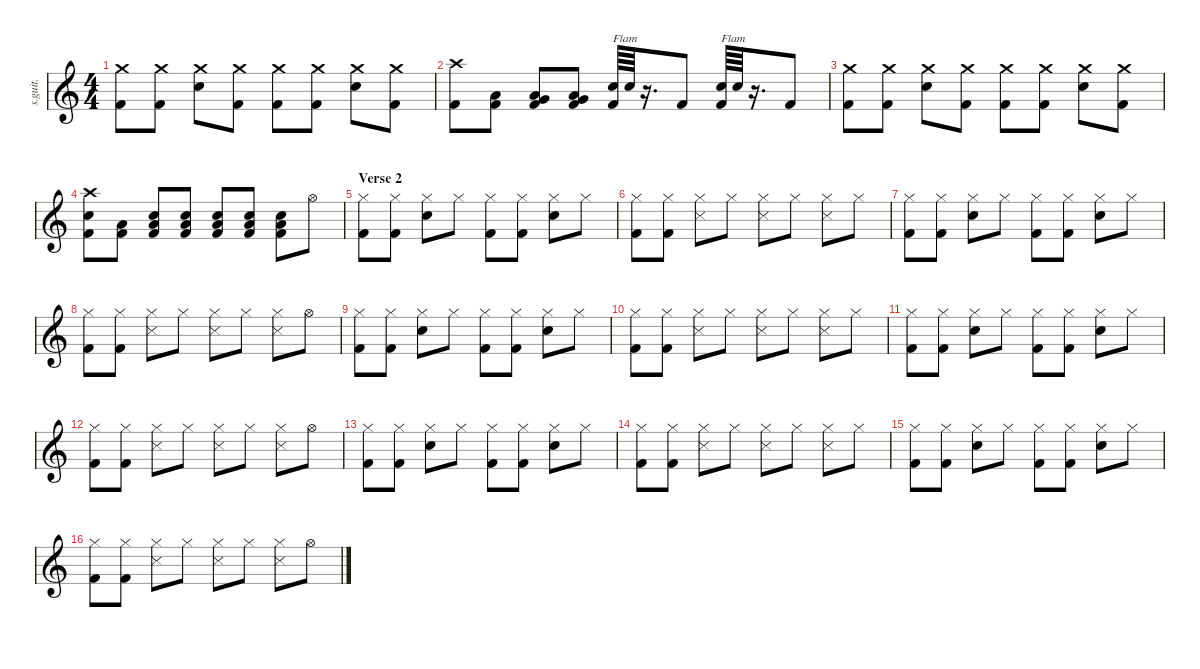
\defaultSystemsLayout 4
\hideDynamics
\bracketExtendMode nobrackets
\track ("Dave Grohl - Drums" "s.guit.") {instrument percussion}
\staff {score}
\articulation defaults
\ts (4 4)
\tempo (100 hide)
\clef g2
\ks c
("Crash medium (hit)" "Kick (hit) 2").8{lyrics (0 "") lyrics (1 "") lyrics (2 "") lyrics (3 "") lyrics (4 "") dy ff} ("Crash medium (hit)" "Kick (hit) 2").8{lyrics (0 "") lyrics (1 "") lyrics (2 "") lyrics (3 "") lyrics (4 "")} ("Snare (hit) 2" "Crash medium (hit)").8{lyrics (0 "") lyrics (1 "") lyrics (2 "") lyrics (3 "") lyrics (4 "")} ("Crash medium (hit)" "Kick (hit) 2").8{lyrics (0 "") lyrics (1 "") lyrics (2 "") lyrics (3 "") lyrics (4 "")} ("Crash medium (hit)" "Kick (hit) 2").8{lyrics (0 "") lyrics (1 "") lyrics (2 "") lyrics (3 "") lyrics (4 "")} ("Crash medium (hit)" "Kick (hit) 2").8{lyrics (0 "") lyrics (1 "") lyrics (2 "") lyrics (3 "") lyrics (4 "")} ("Snare (hit) 2" "Crash medium (hit)").8{lyrics (0 "") lyrics (1 "") lyrics (2 "") lyrics (3 "") lyrics (4 "")} ("Crash medium (hit)" "Kick (hit) 2").8{lyrics (0 "") lyrics (1 "") lyrics (2 "") lyrics (3 "") lyrics (4 "")} |
("Kick (hit) 2" "Crash high (hit)").8{lyrics (0 "") lyrics (1 "") lyrics (2 "") lyrics (3 "") lyrics (4 "")} ("Low Tom (hit)" "Kick (hit) 2").8{lyrics (0 "") lyrics (1 "") lyrics (2 "") lyrics (3 "") lyrics (4 "")} ("Low Tom (hit)" "Kick (hit) 2" "Very Low Tom (hit)").8{lyrics (0 "") lyrics (1 "") lyrics (2 "") lyrics (3 "") lyrics (4 "") dy fff} ("Low Tom (hit)" "Kick (hit) 2" "Very Low Tom (hit)").8{lyrics (0 "") lyrics (1 "") lyrics (2 "") lyrics (3 "") lyrics (4 "")} ("Snare (hit) 2" "Kick (hit) 2").64{txt "Flam" lyrics (0 "") lyrics (1 "") lyrics (2 "") lyrics (3 "") lyrics (4 "") dy ff} "Snare (hit) 2".64{lyrics (0 "") lyrics (1 "") lyrics (2 "") lyrics (3 "") lyrics (4 "")} r.16{d} "Kick (hit) 2".8{lyrics (0 "") lyrics (1 "") lyrics (2 "") lyrics (3 "") lyrics (4 "")} ("Snare (hit) 2" "Kick (hit) 2").64{txt "Flam" lyrics (0 "") lyrics (1 "") lyrics (2 "") lyrics (3 "") lyrics (4 "")} "Snare (hit) 2".64{lyrics (0 "") lyrics (1 "") lyrics (2 "") lyrics (3 "") lyrics (4 "")} r.16{d} "Kick (hit) 2".8{lyrics (0 "") lyrics (1 "") lyrics (2 "") lyrics (3 "") lyrics (4 "")} |
("Crash medium (hit)" "Kick (hit) 2").8{lyrics (0 "") lyrics (1 "") lyrics (2 "") lyrics (3 "") lyrics (4 "")} ("Crash medium (hit)" "Kick (hit) 2").8{lyrics (0 "") lyrics (1 "") lyrics (2 "") lyrics (3 "") lyrics (4 "")} ("Snare (hit) 2" "Crash medium (hit)").8{lyrics (0 "") lyrics (1 "") lyrics (2 "") lyrics (3 "") lyrics (4 "")} ("Crash medium (hit)" "Kick (hit) 2").8{lyrics (0 "") lyrics (1 "") lyrics (2 "") lyrics (3 "") lyrics (4 "")} ("Crash medium (hit)" "Kick (hit) 2").8{lyrics (0 "") lyrics (1 "") lyrics (2 "") lyrics (3 "") lyrics (4 "")} ("Crash medium (hit)" "Kick (hit) 2").8{lyrics (0 "") lyrics (1 "") lyrics (2 "") lyrics (3 "") lyrics (4 "")} ("Snare (hit) 2" "Crash medium (hit)").8{lyrics (0 "") lyrics (1 "") lyrics (2 "") lyrics (3 "") lyrics (4 "")} ("Crash medium (hit)" "Kick (hit) 2").8{lyrics (0 "") lyrics (1 "") lyrics (2 "") lyrics (3 "") lyrics (4 "")} |
("Snare (hit) 2" "Kick (hit) 2" "Crash high (hit)").8{lyrics (0 "") lyrics (1 "") lyrics (2 "") lyrics (3 "") lyrics (4 "")} ("Low Tom (hit)" "Kick (hit) 2").8{lyrics (0 "") lyrics (1 "") lyrics (2 "") lyrics (3 "") lyrics (4 "") dy p} ("Low Tom (hit)" "Kick (hit) 2" "Snare (hit) 2").8{lyrics (0 "") lyrics (1 "") lyrics (2 "") lyrics (3 "") lyrics (4 "") dy mp} ("Low Tom (hit)" "Kick (hit) 2" "Snare (hit) 2").8{lyrics (0 "") lyrics (1 "") lyrics (2 "") lyrics (3 "") lyrics (4 "") dy mf} ("Low Tom (hit)" "Kick (hit) 2" "Snare (hit) 2").8{lyrics (0 "") lyrics (1 "") lyrics (2 "") lyrics (3 "") lyrics (4 "") dy f} ("Low Tom (hit)" "Kick (hit) 2" "Snare (hit) 2").8{lyrics (0 "") lyrics (1 "") lyrics (2 "") lyrics (3 "") lyrics (4 "") dy ff} ("Low Tom (hit)" "Kick (hit) 2" "Snare (hit) 2").8{lyrics (0 "") lyrics (1 "") lyrics (2 "") lyrics (3 "") lyrics (4 "") dy fff} "Hi-Hat (open)".8{lyrics (0 "") lyrics (1 "") lyrics (2 "") lyrics (3 "") lyrics (4 "") dy ff} |
\section ("" "Verse 2")
("Hi-Hat (closed)" "Kick (hit) 2").8{lyrics (0 "") lyrics (1 "") lyrics (2 "") lyrics (3 "") lyrics (4 "") dy mf} ("Hi-Hat (closed)" "Kick (hit) 2").8{lyrics (0 "") lyrics (1 "") lyrics (2 "") lyrics (3 "") lyrics (4 "")} ("Hi-Hat (closed)" "Snare (hit) 2").8{lyrics (0 "") lyrics (1 "") lyrics (2 "") lyrics (3 "") lyrics (4 "")} "Hi-Hat (closed)".8{lyrics (0 "") lyrics (1 "") lyrics (2 "") lyrics (3 "") lyrics (4 "")} ("Hi-Hat (closed)" "Kick (hit) 2").8{lyrics (0 "") lyrics (1 "") lyrics (2 "") lyrics (3 "") lyrics (4 "")} ("Hi-Hat (closed)" "Kick (hit) 2").8{lyrics (0 "") lyrics (1 "") lyrics (2 "") lyrics (3 "") lyrics (4 "")} ("Snare (hit) 2" "Hi-Hat (closed)").8{lyrics (0 "") lyrics (1 "") lyrics (2 "") lyrics (3 "") lyrics (4 "")} "Hi-Hat (closed)".8{lyrics (0 "") lyrics (1 "") lyrics (2 "") lyrics (3 "") lyrics (4 "")} |
("Hi-Hat (closed)" "Kick (hit) 2").8{lyrics (0 "") lyrics (1 "") lyrics (2 "") lyrics (3 "") lyrics (4 "")} ("Hi-Hat (closed)" "Kick (hit) 2").8{lyrics (0 "") lyrics (1 "") lyrics (2 "") lyrics (3 "") lyrics (4 "")} ("Hi-Hat (closed)" "Snare (side stick) 3").8{lyrics (0 "") lyrics (1 "") lyrics (2 "") lyrics (3 "") lyrics (4 "")} "Hi-Hat (closed)".8{lyrics (0 "") lyrics (1 "") lyrics (2 "") lyrics (3 "") lyrics (4 "")} ("Hi-Hat (closed)" "Snare (side stick) 3").8{lyrics (0 "") lyrics (1 "") lyrics (2 "") lyrics (3 "") lyrics (4 "")} "Hi-Hat (closed)".8{lyrics (0 "") lyrics (1 "") lyrics (2 "") lyrics (3 "") lyrics (4 "")} ("Hi-Hat (closed)" "Snare (side stick) 3").8{lyrics (0 "") lyrics (1 "") lyrics (2 "") lyrics (3 "") lyrics (4 "")} "Hi-Hat (closed)".8{lyrics (0 "") lyrics (1 "") lyrics (2 "") lyrics (3 "") lyrics (4 "")} |
("Hi-Hat (closed)" "Kick (hit) 2").8{lyrics (0 "") lyrics (1 "") lyrics (2 "") lyrics (3 "") lyrics (4 "")} ("Hi-Hat (closed)" "Kick (hit) 2").8{lyrics (0 "") lyrics (1 "") lyrics (2 "") lyrics (3 "") lyrics (4 "")} ("Hi-Hat (closed)" "Snare (hit) 2").8{lyrics (0 "") lyrics (1 "") lyrics (2 "") lyrics (3 "") lyrics (4 "")} "Hi-Hat (closed)".8{lyrics (0 "") lyrics (1 "") lyrics (2 "") lyrics (3 "") lyrics (4 "")} ("Hi-Hat (closed)" "Kick (hit) 2").8{lyrics (0 "") lyrics (1 "") lyrics (2 "") lyrics (3 "") lyrics (4 "")} ("Hi-Hat (closed)" "Kick (hit) 2").8{lyrics (0 "") lyrics (1 "") lyrics (2 "") lyrics (3 "") lyrics (4 "")} ("Snare (hit) 2" "Hi-Hat (closed)").8{lyrics (0 "") lyrics (1 "") lyrics (2 "") lyrics (3 "") lyrics (4 "")} "Hi-Hat (closed)".8{lyrics (0 "") lyrics (1 "") lyrics (2 "") lyrics (3 "") lyrics (4 "")} |
("Hi-Hat (closed)" "Kick (hit) 2").8{lyrics (0 "") lyrics (1 "") lyrics (2 "") lyrics (3 "") lyrics (4 "")} ("Hi-Hat (closed)" "Kick (hit) 2").8{lyrics (0 "") lyrics (1 "") lyrics (2 "") lyrics (3 "") lyrics (4 "")} ("Hi-Hat (closed)" "Snare (side stick) 3").8{lyrics (0 "") lyrics (1 "") lyrics (2 "") lyrics (3 "") lyrics (4 "")} "Hi-Hat (closed)".8{lyrics (0 "") lyrics (1 "") lyrics (2 "") lyrics (3 "") lyrics (4 "")} ("Hi-Hat (closed)" "Snare (side stick) 3").8{lyrics (0 "") lyrics (1 "") lyrics (2 "") lyrics (3 "") lyrics (4 "")} "Hi-Hat (closed)".8{lyrics (0 "") lyrics (1 "") lyrics (2 "") lyrics (3 "") lyrics (4 "")} ("Hi-Hat (closed)" "Snare (side stick) 3").8{lyrics (0 "") lyrics (1 "") lyrics (2 "") lyrics (3 "") lyrics (4 "")} "Hi-Hat (open)".8{lyrics (0 "") lyrics (1 "") lyrics (2 "") lyrics (3 "") lyrics (4 "")} |
("Hi-Hat (closed)" "Kick (hit) 2").8{lyrics (0 "") lyrics (1 "") lyrics (2 "") lyrics (3 "") lyrics (4 "")} ("Hi-Hat (closed)" "Kick (hit) 2").8{lyrics (0 "") lyrics (1 "") lyrics (2 "") lyrics (3 "") lyrics (4 "")} ("Hi-Hat (closed)" "Snare (hit) 2").8{lyrics (0 "") lyrics (1 "") lyrics (2 "") lyrics (3 "") lyrics (4 "")} "Hi-Hat (closed)".8{lyrics (0 "") lyrics (1 "") lyrics (2 "") lyrics (3 "") lyrics (4 "")} ("Hi-Hat (closed)" "Kick (hit) 2").8{lyrics (0 "") lyrics (1 "") lyrics (2 "") lyrics (3 "") lyrics (4 "")} ("Hi-Hat (closed)" "Kick (hit) 2").8{lyrics (0 "") lyrics (1 "") lyrics (2 "") lyrics (3 "") lyrics (4 "")} ("Snare (hit) 2" "Hi-Hat (closed)").8{lyrics (0 "") lyrics (1 "") lyrics (2 "") lyrics (3 "") lyrics (4 "")} "Hi-Hat (closed)".8{lyrics (0 "") lyrics (1 "") lyrics (2 "") lyrics (3 "") lyrics (4 "")} |
("Hi-Hat (closed)" "Kick (hit) 2").8{lyrics (0 "") lyrics (1 "") lyrics (2 "") lyrics (3 "") lyrics (4 "")} ("Hi-Hat (closed)" "Kick (hit) 2").8{lyrics (0 "") lyrics (1 "") lyrics (2 "") lyrics (3 "") lyrics (4 "")} ("Hi-Hat (closed)" "Snare (side stick) 3").8{lyrics (0 "") lyrics (1 "") lyrics (2 "") lyrics (3 "") lyrics (4 "")} "Hi-Hat (closed)".8{lyrics (0 "") lyrics (1 "") lyrics (2 "") lyrics (3 "") lyrics (4 "")} ("Hi-Hat (closed)" "Snare (side stick) 3").8{lyrics (0 "") lyrics (1 "") lyrics (2 "") lyrics (3 "") lyrics (4 "")} "Hi-Hat (closed)".8{lyrics (0 "") lyrics (1 "") lyrics (2 "") lyrics (3 "") lyrics (4 "")} ("Hi-Hat (closed)" "Snare (side stick) 3").8{lyrics (0 "") lyrics (1 "") lyrics (2 "") lyrics (3 "") lyrics (4 "")} "Hi-Hat (closed)".8{lyrics (0 "") lyrics (1 "") lyrics (2 "") lyrics (3 "") lyrics (4 "")} |
("Hi-Hat (closed)" "Kick (hit) 2").8{lyrics (0 "") lyrics (1 "") lyrics (2 "") lyrics (3 "") lyrics (4 "")} ("Hi-Hat (closed)" "Kick (hit) 2").8{lyrics (0 "") lyrics (1 "") lyrics (2 "") lyrics (3 "") lyrics (4 "")} ("Hi-Hat (closed)" "Snare (hit) 2").8{lyrics (0 "") lyrics (1 "") lyrics (2 "") lyrics (3 "") lyrics (4 "")} "Hi-Hat (closed)".8{lyrics (0 "") lyrics (1 "") lyrics (2 "") lyrics (3 "") lyrics (4 "")} ("Hi-Hat (closed)" "Kick (hit) 2").8{lyrics (0 "") lyrics (1 "") lyrics (2 "") lyrics (3 "") lyrics (4 "")} ("Hi-Hat (closed)" "Kick (hit) 2").8{lyrics (0 "") lyrics (1 "") lyrics (2 "") lyrics (3 "") lyrics (4 "")} ("Snare (hit) 2" "Hi-Hat (closed)").8{lyrics (0 "") lyrics (1 "") lyrics (2 "") lyrics (3 "") lyrics (4 "")} "Hi-Hat (closed)".8{lyrics (0 "") lyrics (1 "") lyrics (2 "") lyrics (3 "") lyrics (4 "")} |
("Hi-Hat (closed)" "Kick (hit) 2").8{lyrics (0 "") lyrics (1 "") lyrics (2 "") lyrics (3 "") lyrics (4 "")} ("Hi-Hat (closed)" "Kick (hit) 2").8{lyrics (0 "") lyrics (1 "") lyrics (2 "") lyrics (3 "") lyrics (4 "")} ("Hi-Hat (closed)" "Snare (side stick) 3").8{lyrics (0 "") lyrics (1 "") lyrics (2 "") lyrics (3 "") lyrics (4 "")} "Hi-Hat (closed)".8{lyrics (0 "") lyrics (1 "") lyrics (2 "") lyrics (3 "") lyrics (4 "")} ("Hi-Hat (closed)" "Snare (side stick) 3").8{lyrics (0 "") lyrics (1 "") lyrics (2 "") lyrics (3 "") lyrics (4 "")} "Hi-Hat (closed)".8{lyrics (0 "") lyrics (1 "") lyrics (2 "") lyrics (3 "") lyrics (4 "")} ("Hi-Hat (closed)" "Snare (side stick) 3").8{lyrics (0 "") lyrics (1 "") lyrics (2 "") lyrics (3 "") lyrics (4 "")} "Hi-Hat (open)".8{lyrics (0 "") lyrics (1 "") lyrics (2 "") lyrics (3 "") lyrics (4 "")} |
("Hi-Hat (closed)" "Kick (hit) 2").8{lyrics (0 "") lyrics (1 "") lyrics (2 "") lyrics (3 "") lyrics (4 "")} ("Hi-Hat (closed)" "Kick (hit) 2").8{lyrics (0 "") lyrics (1 "") lyrics (2 "") lyrics (3 "") lyrics (4 "")} ("Hi-Hat (closed)" "Snare (hit) 2").8{lyrics (0 "") lyrics (1 "") lyrics (2 "") lyrics (3 "") lyrics (4 "")} "Hi-Hat (closed)".8{lyrics (0 "") lyrics (1 "") lyrics (2 "") lyrics (3 "") lyrics (4 "")} ("Hi-Hat (closed)" "Kick (hit) 2").8{lyrics (0 "") lyrics (1 "") lyrics (2 "") lyrics (3 "") lyrics (4 "")} ("Hi-Hat (closed)" "Kick (hit) 2").8{lyrics (0 "") lyrics (1 "") lyrics (2 "") lyrics (3 "") lyrics (4 "")} ("Snare (hit) 2" "Hi-Hat (closed)").8{lyrics (0 "") lyrics (1 "") lyrics (2 "") lyrics (3 "") lyrics (4 "")} "Hi-Hat (closed)".8{lyrics (0 "") lyrics (1 "") lyrics (2 "") lyrics (3 "") lyrics (4 "")} |
("Hi-Hat (closed)" "Kick (hit) 2").8{lyrics (0 "") lyrics (1 "") lyrics (2 "") lyrics (3 "") lyrics (4 "")} ("Hi-Hat (closed)" "Kick (hit) 2").8{lyrics (0 "") lyrics (1 "") lyrics (2 "") lyrics (3 "") lyrics (4 "")} ("Hi-Hat (closed)" "Snare (side stick) 3").8{lyrics (0 "") lyrics (1 "") lyrics (2 "") lyrics (3 "") lyrics (4 "")} "Hi-Hat (closed)".8{lyrics (0 "") lyrics (1 "") lyrics (2 "") lyrics (3 "") lyrics (4 "")} ("Hi-Hat (closed)" "Snare (side stick) 3").8{lyrics (0 "") lyrics (1 "") lyrics (2 "") lyrics (3 "") lyrics (4 "")} "Hi-Hat (closed)".8{lyrics (0 "") lyrics (1 "") lyrics (2 "") lyrics (3 "") lyrics (4 "")} ("Hi-Hat (closed)" "Snare (side stick) 3").8{lyrics (0 "") lyrics (1 "") lyrics (2 "") lyrics (3 "") lyrics (4 "")} "Hi-Hat (closed)".8{lyrics (0 "") lyrics (1 "") lyrics (2 "") lyrics (3 "") lyrics (4 "")} |
("Hi-Hat (closed)" "Kick (hit) 2").8{lyrics (0 "") lyrics (1 "") lyrics (2 "") lyrics (3 "") lyrics (4 "")} ("Hi-Hat (closed)" "Kick (hit) 2").8{lyrics (0 "") lyrics (1 "") lyrics (2 "") lyrics (3 "") lyrics (4 "")} ("Hi-Hat (closed)" "Snare (hit) 2").8{lyrics (0 "") lyrics (1 "") lyrics (2 "") lyrics (3 "") lyrics (4 "")} "Hi-Hat (closed)".8{lyrics (0 "") lyrics (1 "") lyrics (2 "") lyrics (3 "") lyrics (4 "")} ("Hi-Hat (closed)" "Kick (hit) 2").8{lyrics (0 "") lyrics (1 "") lyrics (2 "") lyrics (3 "") lyrics (4 "")} ("Hi-Hat (closed)" "Kick (hit) 2").8{lyrics (0 "") lyrics (1 "") lyrics (2 "") lyrics (3 "") lyrics (4 "")} ("Snare (hit) 2" "Hi-Hat (closed)").8{lyrics (0 "") lyrics (1 "") lyrics (2 "") lyrics (3 "") lyrics (4 "")} "Hi-Hat (closed)".8{lyrics (0 "") lyrics (1 "") lyrics (2 "") lyrics (3 "") lyrics (4 "")} |
("Hi-Hat (closed)" "Kick (hit) 2").8{lyrics (0 "") lyrics (1 "") lyrics (2 "") lyrics (3 "") lyrics (4 "")} ("Hi-Hat (closed)" "Kick (hit) 2").8{lyrics (0 "") lyrics (1 "") lyrics (2 "") lyrics (3 "") lyrics (4 "")} ("Hi-Hat (closed)" "Snare (side stick) 3").8{lyrics (0 "") lyrics (1 "") lyrics (2 "") lyrics (3 "") lyrics (4 "")} "Hi-Hat (closed)".8{lyrics (0 "") lyrics (1 "") lyrics (2 "") lyrics (3 "") lyrics (4 "")} ("Hi-Hat (closed)" "Snare (side stick) 3").8{lyrics (0 "") lyrics (1 "") lyrics (2 "") lyrics (3 "") lyrics (4 "")} "Hi-Hat (closed)".8{lyrics (0 "") lyrics (1 "") lyrics (2 "") lyrics (3 "") lyrics (4 "")} ("Hi-Hat (closed)" "Snare (side stick) 3").8{lyrics (0 "") lyrics (1 "") lyrics (2 "") lyrics (3 "") lyrics (4 "")} "Hi-Hat (open)".8{lyrics (0 "") lyrics (1 "") lyrics (2 "") lyrics (3 "") lyrics (4 "")}
